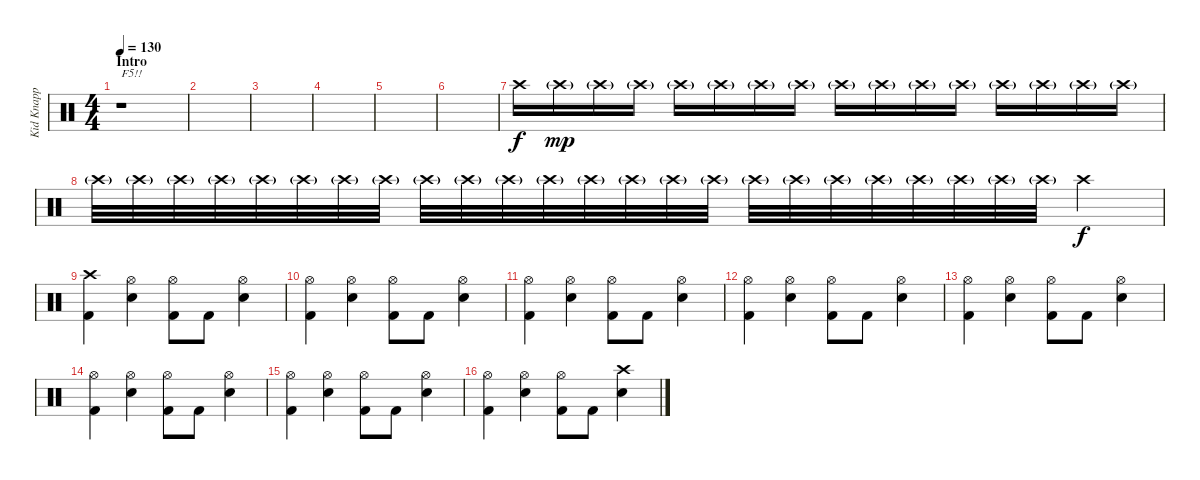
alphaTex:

\track ("Kid Knapp (Drums)" "Kid Knapp ") {instrument percussion}
\staff {score}
\articulation defaults
\ts (4 4)
\section ("" "Intro")
\tempo 130
\clef neutral
\ks c
r.1{txt "F5!!" dy f} |
|
|
|
|
|
"Crash high (hit)".16{volume 16} "Crash high (hit)"{g}.16{dy mp} "Crash high (hit)"{g}.16 "Crash high (hit)"{g}.16 "Crash high (hit)"{g}.16 "Crash high (hit)"{g}.16 "Crash high (hit)"{g}.16 "Crash high (hit)"{g}.16 "Crash high (hit)"{g}.16 "Crash high (hit)"{g}.16 "Crash high (hit)"{g}.16 "Crash high (hit)"{g}.16 "Crash high (hit)"{g}.16 "Crash high (hit)"{g}.16 "Crash high (hit)"{g}.16 "Crash high (hit)"{g}.16 |
"Crash high (hit)"{g}.32 "Crash high (hit)"{g}.32 "Crash high (hit)"{g}.32 "Crash high (hit)"{g}.32 "Crash high (hit)"{g}.32 "Crash high (hit)"{g}.32 "Crash high (hit)"{g}.32 "Crash high (hit)"{g}.32 "Crash high (hit)"{g}.32 "Crash high (hit)"{g}.32 "Crash high (hit)"{g}.32 "Crash high (hit)"{g}.32 "Crash high (hit)"{g}.32 "Crash high (hit)"{g}.32 "Crash high (hit)"{g}.32 "Crash high (hit)"{g}.32 "Crash high (hit)"{g}.32 "Crash high (hit)"{g}.32 "Crash high (hit)"{g}.32 "Crash high (hit)"{g}.32 "Crash high (hit)"{g}.32 "Crash high (hit)"{g}.32 "Crash high (hit)"{g}.32 "Crash high (hit)"{g}.32 "Crash high (hit)".4{dy f} |
("Crash high (hit)" "Kick (hit) 2").4 ("Hi-Hat (open)" "Electric Snare (hit)").4 ("Hi-Hat (open)" "Kick (hit) 2").8 "Kick (hit) 2".8 ("Hi-Hat (open)" "Electric Snare (hit)").4 |
("Hi-Hat (open)" "Kick (hit) 2").4 ("Hi-Hat (open)" "Electric Snare (hit)").4 ("Hi-Hat (open)" "Kick (hit) 2").8 "Kick (hit) 2".8 ("Hi-Hat (open)" "Electric Snare (hit)").4 |
("Hi-Hat (open)" "Kick (hit) 2").4 ("Hi-Hat (open)" "Electric Snare (hit)").4 ("Hi-Hat (open)" "Kick (hit) 2").8 "Kick (hit) 2".8 ("Hi-Hat (open)" "Electric Snare (hit)").4 |
("Hi-Hat (open)" "Kick (hit) 2").4 ("Hi-Hat (open)" "Electric Snare (hit)").4 ("Hi-Hat (open)" "Kick (hit) 2").8 "Kick (hit) 2".8 ("Hi-Hat (open)" "Electric Snare (hit)").4 |
("Hi-Hat (open)" "Kick (hit) 2").4 ("Hi-Hat (open)" "Electric Snare (hit)").4 ("Hi-Hat (open)" "Kick (hit) 2").8 "Kick (hit) 2".8 ("Hi-Hat (open)" "Electric Snare (hit)").4 |
("Hi-Hat (open)" "Kick (hit) 2").4 ("Hi-Hat (open)" "Electric Snare (hit)").4 ("Hi-Hat (open)" "Kick (hit) 2").8 "Kick (hit) 2".8 ("Hi-Hat (open)" "Electric Snare (hit)").4 |
("Hi-Hat (open)" "Kick (hit) 2").4 ("Hi-Hat (open)" "Electric Snare (hit)").4 ("Hi-Hat (open)" "Kick (hit) 2").8 "Kick (hit) 2".8 ("Hi-Hat (open)" "Electric Snare (hit)").4 |
("Hi-Hat (open)" "Kick (hit) 2").4 ("Hi-Hat (open)" "Electric Snare (hit)").4 ("Hi-Hat (open)" "Kick (hit) 2").8 "Kick (hit) 2".8 ("Crash high (hit)" "Electric Snare (hit)").4
